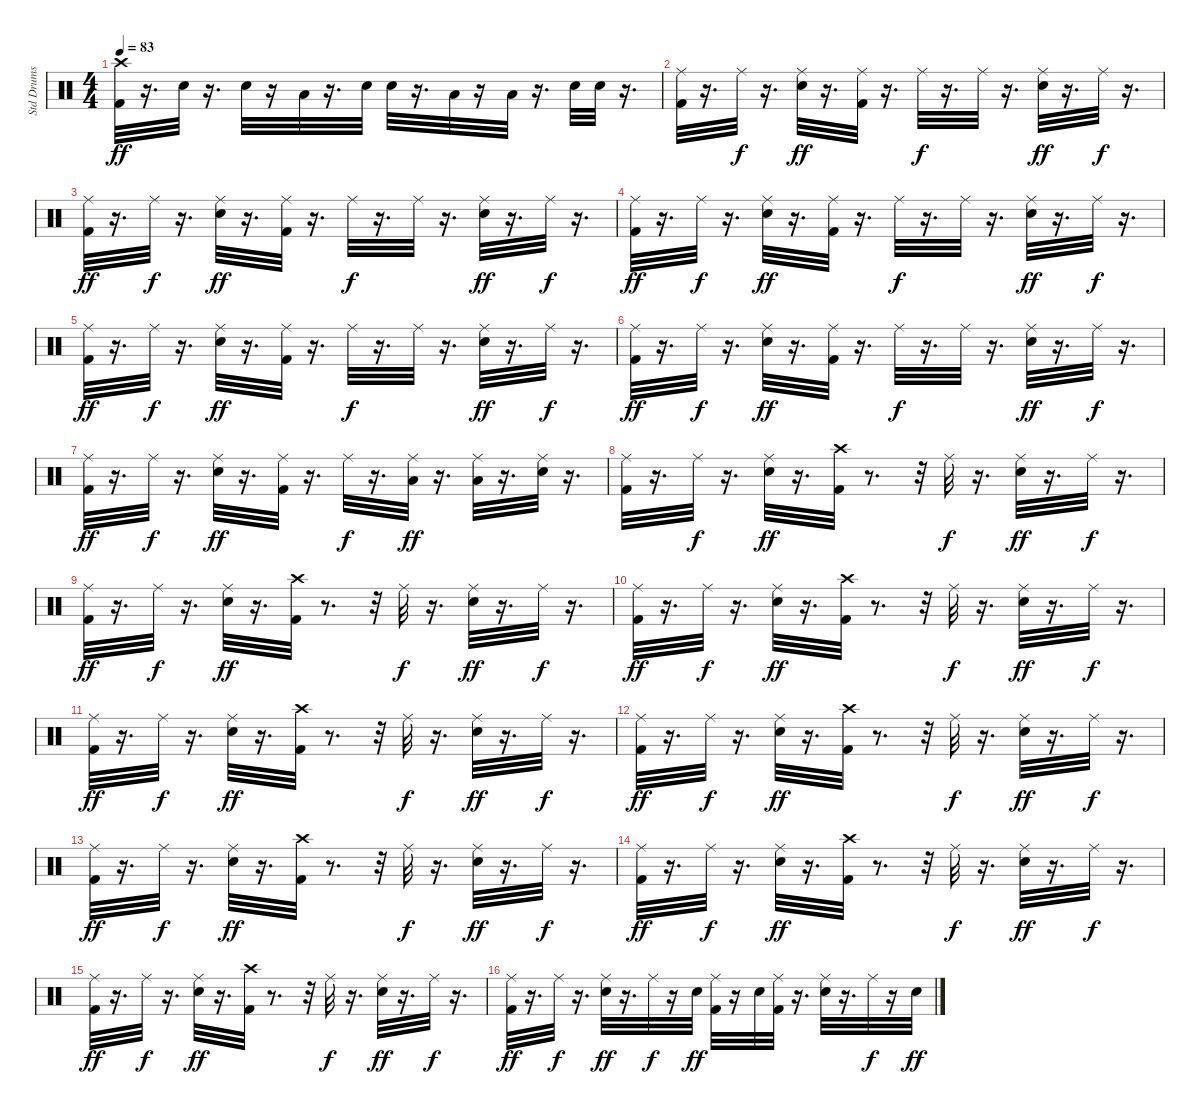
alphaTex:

\track ("Std Drums" "Std Drums") {instrument percussion}
\staff {score}
\articulation defaults
\ts (4 4)
\tempo 83
\clef neutral
\ks c
("Crash high (hit)" "Kick (hit) 2").32{dy ff} r.16{d} "Snare (hit) 2".32 r.16{d} "Snare (hit) 2".32 r.16 "Low Tom (hit)".32 r.16{d} "Snare (hit) 2".32 "Snare (hit) 2".32 r.16{d} "Low Tom (hit)".32 r.16 "Low Tom (hit)".32 r.16{d} "Snare (hit) 2".32 "Snare (hit) 2".32 r.16{d} |
("Kick (hit) 2" "Ride (middle)").32 r.16{d} "Ride (middle)".32{dy f} r.16{d} ("Snare (hit) 2" "Ride (middle)").32{dy ff} r.16{d} ("Ride (middle)" "Kick (hit) 2").32 r.16{d} "Ride (middle)".32{dy f} r.16{d} "Ride (middle)".32 r.16{d} ("Snare (hit) 2" "Ride (middle)").32{dy ff} r.16{d} "Ride (middle)".32{dy f} r.16{d} |
("Ride (middle)" "Kick (hit) 2").32{dy ff} r.16{d} "Ride (middle)".32{dy f} r.16{d} ("Snare (hit) 2" "Ride (middle)").32{dy ff} r.16{d} ("Ride (middle)" "Kick (hit) 2").32 r.16{d} "Ride (middle)".32{dy f} r.16{d} "Ride (middle)".32 r.16{d} ("Snare (hit) 2" "Ride (middle)").32{dy ff} r.16{d} "Ride (middle)".32{dy f} r.16{d} |
("Ride (middle)" "Kick (hit) 2").32{dy ff} r.16{d} "Ride (middle)".32{dy f} r.16{d} ("Snare (hit) 2" "Ride (middle)").32{dy ff} r.16{d} ("Ride (middle)" "Kick (hit) 2").32 r.16{d} "Ride (middle)".32{dy f} r.16{d} "Ride (middle)".32 r.16{d} ("Snare (hit) 2" "Ride (middle)").32{dy ff} r.16{d} "Ride (middle)".32{dy f} r.16{d} |
("Ride (middle)" "Kick (hit) 2").32{dy ff} r.16{d} "Ride (middle)".32{dy f} r.16{d} ("Snare (hit) 2" "Ride (middle)").32{dy ff} r.16{d} ("Ride (middle)" "Kick (hit) 2").32 r.16{d} "Ride (middle)".32{dy f} r.16{d} "Ride (middle)".32 r.16{d} ("Snare (hit) 2" "Ride (middle)").32{dy ff} r.16{d} "Ride (middle)".32{dy f} r.16{d} |
("Ride (middle)" "Kick (hit) 2").32{dy ff} r.16{d} "Ride (middle)".32{dy f} r.16{d} ("Snare (hit) 2" "Ride (middle)").32{dy ff} r.16{d} ("Kick (hit) 2" "Ride (middle)").32 r.16{d} "Ride (middle)".32{dy f} r.16{d} "Ride (middle)".32 r.16{d} ("Snare (hit) 2" "Ride (middle)").32{dy ff} r.16{d} "Ride (middle)".32{dy f} r.16{d} |
("Kick (hit) 2" "Ride (middle)").32{dy ff} r.16{d} "Ride (middle)".32{dy f} r.16{d} ("Snare (hit) 2" "Ride (middle)").32{dy ff} r.16{d} ("Kick (hit) 2" "Ride (middle)").32 r.16{d} "Ride (middle)".32{dy f} r.16{d} ("Ride (middle)" "Low Tom (hit)").32{dy ff} r.16{d} ("Low Tom (hit)" "Ride (middle)").32 r.16{d} ("Ride (middle)" "Snare (hit) 2").32 r.16{d} |
("Kick (hit) 2" "Ride (middle)").32 r.16{d} "Ride (middle)".32{dy f} r.16{d} ("Snare (hit) 2" "Ride (middle)").32{dy ff} r.16{d} ("Crash high (hit)" "Kick (hit) 2").32 r.8{d} r.32 "Ride (middle)".32{dy f} r.16{d} ("Ride (middle)" "Snare (hit) 2").32{dy ff} r.16{d} "Ride (middle)".32{dy f} r.16{d} |
("Ride (middle)" "Kick (hit) 2").32{dy ff} r.16{d} "Ride (middle)".32{dy f} r.16{d} ("Snare (hit) 2" "Ride (middle)").32{dy ff} r.16{d} ("Kick (hit) 2" "Crash high (hit)").32 r.8{d} r.32 "Ride (middle)".32{dy f} r.16{d} ("Ride (middle)" "Snare (hit) 2").32{dy ff} r.16{d} "Ride (middle)".32{dy f} r.16{d} |
("Kick (hit) 2" "Ride (middle)").32{dy ff} r.16{d} "Ride (middle)".32{dy f} r.16{d} ("Ride (middle)" "Snare (hit) 2").32{dy ff} r.16{d} ("Crash high (hit)" "Kick (hit) 2").32 r.8{d} r.32 "Ride (middle)".32{dy f} r.16{d} ("Snare (hit) 2" "Ride (middle)").32{dy ff} r.16{d} "Ride (middle)".32{dy f} r.16{d} |
("Ride (middle)" "Kick (hit) 2").32{dy ff} r.16{d} "Ride (middle)".32{dy f} r.16{d} ("Ride (middle)" "Snare (hit) 2").32{dy ff} r.16{d} ("Crash high (hit)" "Kick (hit) 2").32 r.8{d} r.32 "Ride (middle)".32{dy f} r.16{d} ("Snare (hit) 2" "Ride (middle)").32{dy ff} r.16{d} "Ride (middle)".32{dy f} r.16{d} |
("Ride (middle)" "Kick (hit) 2").32{dy ff} r.16{d} "Ride (middle)".32{dy f} r.16{d} ("Ride (middle)" "Snare (hit) 2").32{dy ff} r.16{d} ("Crash high (hit)" "Kick (hit) 2").32 r.8{d} r.32 "Ride (middle)".32{dy f} r.16{d} ("Ride (middle)" "Snare (hit) 2").32{dy ff} r.16{d} "Ride (middle)".32{dy f} r.16{d} |
("Ride (middle)" "Kick (hit) 2").32{dy ff} r.16{d} "Ride (middle)".32{dy f} r.16{d} ("Ride (middle)" "Snare (hit) 2").32{dy ff} r.16{d} ("Crash high (hit)" "Kick (hit) 2").32 r.8{d} r.32 "Ride (middle)".32{dy f} r.16{d} ("Ride (middle)" "Snare (hit) 2").32{dy ff} r.16{d} "Ride (middle)".32{dy f} r.16{d} |
("Ride (middle)" "Kick (hit) 2").32{dy ff} r.16{d} "Ride (middle)".32{dy f} r.16{d} ("Snare (hit) 2" "Ride (middle)").32{dy ff} r.16{d} ("Crash high (hit)" "Kick (hit) 2").32 r.8{d} r.32 "Ride (middle)".32{dy f} r.16{d} ("Ride (middle)" "Snare (hit) 2").32{dy ff} r.16{d} "Ride (middle)".32{dy f} r.16{d} |
("Kick (hit) 2" "Ride (middle)").32{dy ff} r.16{d} "Ride (middle)".32{dy f} r.16{d} ("Ride (middle)" "Snare (hit) 2").32{dy ff} r.16{d} ("Crash high (hit)" "Kick (hit) 2").32 r.8{d} r.32 "Ride (middle)".32{dy f} r.16{d} ("Snare (hit) 2" "Ride (middle)").32{dy ff} r.16{d} "Ride (middle)".32{dy f} r.16{d} |
("Ride (middle)" "Kick (hit) 2").32{dy ff} r.16{d} "Ride (middle)".32{dy f} r.16{d} ("Snare (hit) 2" "Ride (middle)").32{dy ff} r.16{d} "Ride (middle)".32{dy f} r.16 "Snare (hit) 2".32{dy ff} ("Kick (hit) 2" "Ride (middle)").32 r.16 "Snare (hit) 2".32 ("Ride (middle)" "Kick (hit) 2").32 r.16{d} ("Snare (hit) 2" "Ride (middle)").32 r.16{d} "Ride (middle)".32{dy f} r.16 "Snare (hit) 2".32{dy ff}
